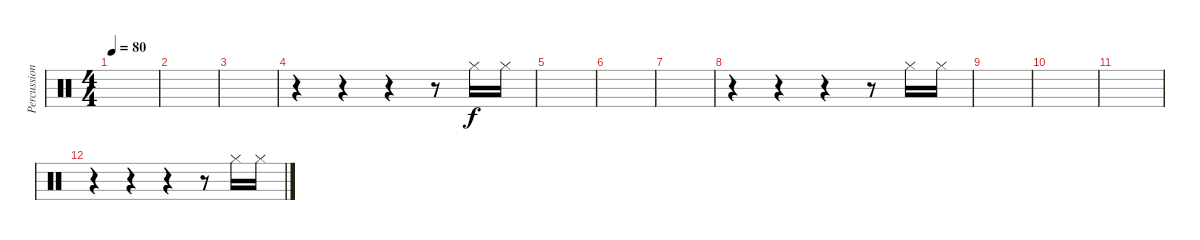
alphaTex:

\track ("Percussions" "Percussion") {instrument percussion}
\staff {score}
\articulation defaults
\ts (4 4)
\tempo 80
\clef neutral
\ks c
|
|
|
r.4 r.4 r.4 r.8 "Hi-Hat (closed)".16 "Hi-Hat (closed)".16 |
|
|
|
r.4 r.4 r.4 r.8 "Hi-Hat (closed)".16 "Hi-Hat (closed)".16 |
|
|
|
r.4 r.4 r.4 r.8 "Hi-Hat (closed)".16 "Hi-Hat (closed)".16
